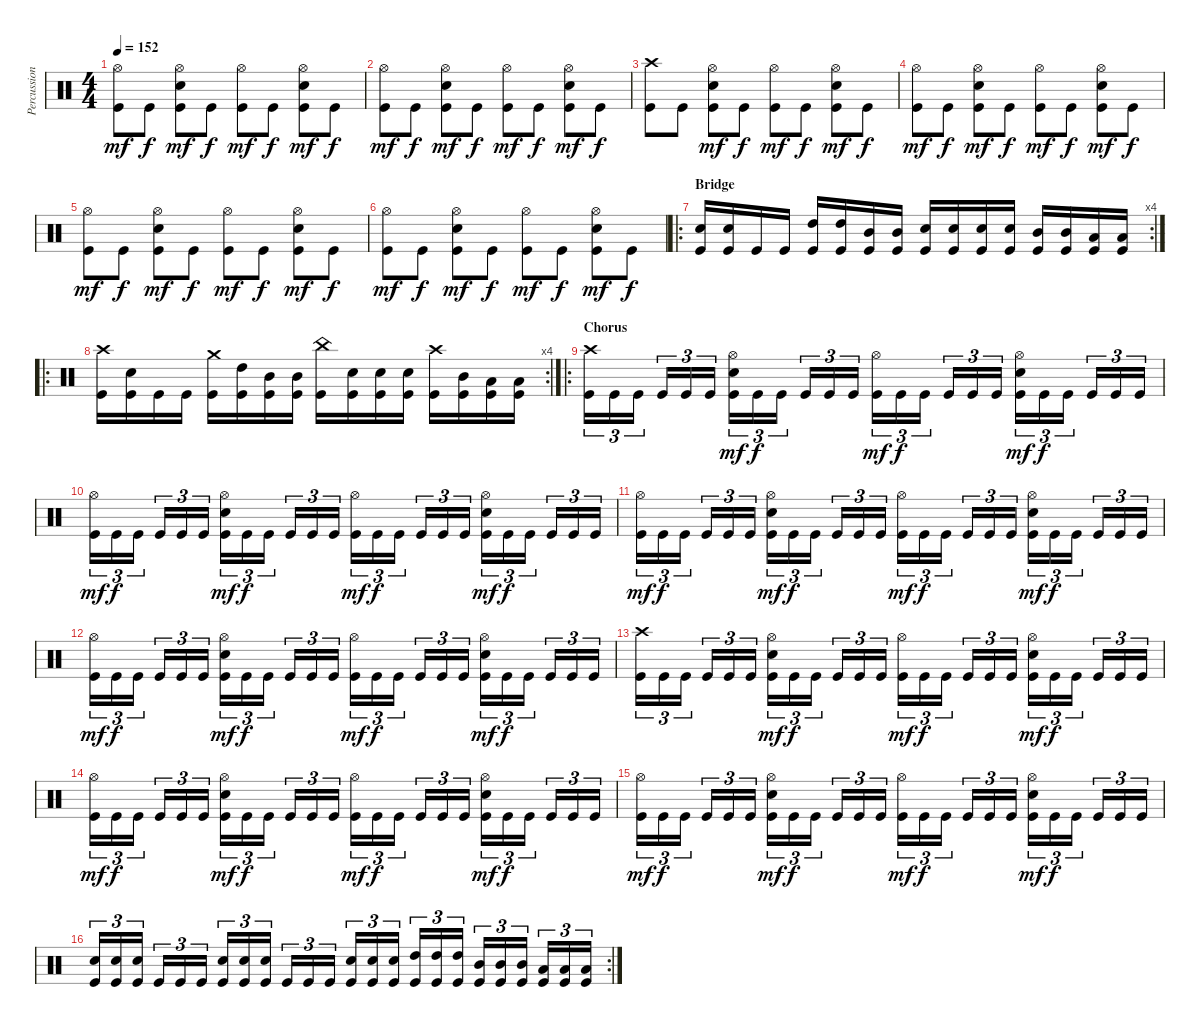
\track ("Percussion" "Percussion") {instrument percussion}
\staff {score}
\articulation defaults
\ts (4 4)
\tempo 152
\clef neutral
\ks c
("Hi-Hat (open)" "Kick (hit)").8{dy mf} "Kick (hit)".8{dy f} ("Hi-Hat (open)" "Snare (hit) 2" "Kick (hit)").8{dy mf} "Kick (hit)".8{dy f} ("Hi-Hat (open)" "Kick (hit)").8{dy mf} "Kick (hit)".8{dy f} ("Hi-Hat (open)" "Snare (hit) 2" "Kick (hit)").8{dy mf} "Kick (hit)".8{dy f} |
("Hi-Hat (open)" "Kick (hit)").8{dy mf} "Kick (hit)".8{dy f} ("Hi-Hat (open)" "Snare (hit) 2" "Kick (hit)").8{dy mf} "Kick (hit)".8{dy f} ("Hi-Hat (open)" "Kick (hit)").8{dy mf} "Kick (hit)".8{dy f} ("Hi-Hat (open)" "Snare (hit) 2" "Kick (hit)").8{dy mf} "Kick (hit)".8{dy f} |
("Crash high (hit)" "Kick (hit)").8 "Kick (hit)".8 ("Hi-Hat (open)" "Snare (hit) 2" "Kick (hit)").8{dy mf} "Kick (hit)".8{dy f} ("Hi-Hat (open)" "Kick (hit)").8{dy mf} "Kick (hit)".8{dy f} ("Hi-Hat (open)" "Snare (hit) 2" "Kick (hit)").8{dy mf} "Kick (hit)".8{dy f} |
("Hi-Hat (open)" "Kick (hit)").8{dy mf} "Kick (hit)".8{dy f} ("Hi-Hat (open)" "Snare (hit) 2" "Kick (hit)").8{dy mf} "Kick (hit)".8{dy f} ("Hi-Hat (open)" "Kick (hit)").8{dy mf} "Kick (hit)".8{dy f} ("Hi-Hat (open)" "Snare (hit) 2" "Kick (hit)").8{dy mf} "Kick (hit)".8{dy f} |
("Hi-Hat (open)" "Kick (hit)").8{dy mf} "Kick (hit)".8{dy f} ("Hi-Hat (open)" "Snare (hit) 2" "Kick (hit)").8{dy mf} "Kick (hit)".8{dy f} ("Hi-Hat (open)" "Kick (hit)").8{dy mf} "Kick (hit)".8{dy f} ("Hi-Hat (open)" "Snare (hit) 2" "Kick (hit)").8{dy mf} "Kick (hit)".8{dy f} |
("Hi-Hat (open)" "Kick (hit)").8{dy mf} "Kick (hit)".8{dy f} ("Hi-Hat (open)" "Snare (hit) 2" "Kick (hit)").8{dy mf} "Kick (hit)".8{dy f} ("Hi-Hat (open)" "Kick (hit)").8{dy mf} "Kick (hit)".8{dy f} ("Hi-Hat (open)" "Snare (hit) 2" "Kick (hit)").8{dy mf} "Kick (hit)".8{dy f} |
\ro
\rc 4
\section ("" "Bridge")
("Snare (hit) 2" "Kick (hit)").16 ("Snare (hit) 2" "Kick (hit)").16 "Kick (hit)".16 "Kick (hit)".16 ("High Tom (hit)" "Kick (hit)").16 ("High Tom (hit)" "Kick (hit)").16 ("Mid Tom (hit)" "Kick (hit)").16 ("Mid Tom (hit)" "Kick (hit)").16 ("Snare (hit) 2" "Kick (hit)").16 ("Snare (hit) 2" "Kick (hit)").16 ("Snare (hit) 2" "Kick (hit)").16 ("Snare (hit) 2" "Kick (hit)").16 ("Mid Tom (hit)" "Kick (hit)").16 ("Mid Tom (hit)" "Kick (hit)").16 ("Low Tom (hit)" "Kick (hit)").16 ("Low Tom (hit)" "Kick (hit)").16 |
\ro
\rc 4
("Crash high (hit)" "Kick (hit)").16 ("Snare (hit) 2" "Kick (hit)").16 "Kick (hit)".16 "Kick (hit)".16 ("Crash medium (hit)" "Kick (hit)").16 ("High Tom (hit)" "Kick (hit)").16 ("Mid Tom (hit)" "Kick (hit)").16 ("Mid Tom (hit)" "Kick (hit)").16 ("China (hit)" "Kick (hit)").16 ("Snare (hit) 2" "Kick (hit)").16 ("Snare (hit) 2" "Kick (hit)").16 ("Snare (hit) 2" "Kick (hit)").16 ("Crash high (hit)" "Kick (hit)").16 ("Mid Tom (hit)" "Kick (hit)").16 ("Low Tom (hit)" "Kick (hit)").16 ("Low Tom (hit)" "Kick (hit)").16 |
\ro
\section ("" "Chorus")
("Crash high (hit)" "Kick (hit)").16{tu (3 2)} "Kick (hit)".16{tu (3 2)} "Kick (hit)".16{tu (3 2)} "Kick (hit)".16{tu (3 2)} "Kick (hit)".16{tu (3 2)} "Kick (hit)".16{tu (3 2)} ("Hi-Hat (open)" "Snare (hit) 2" "Kick (hit)").16{tu (3 2) dy mf} "Kick (hit)".16{tu (3 2) dy f} "Kick (hit)".16{tu (3 2)} "Kick (hit)".16{tu (3 2)} "Kick (hit)".16{tu (3 2)} "Kick (hit)".16{tu (3 2)} ("Hi-Hat (open)" "Kick (hit)").16{tu (3 2) dy mf} "Kick (hit)".16{tu (3 2) dy f} "Kick (hit)".16{tu (3 2)} "Kick (hit)".16{tu (3 2)} "Kick (hit)".16{tu (3 2)} "Kick (hit)".16{tu (3 2)} ("Hi-Hat (open)" "Snare (hit) 2" "Kick (hit)").16{tu (3 2) dy mf} "Kick (hit)".16{tu (3 2) dy f} "Kick (hit)".16{tu (3 2)} "Kick (hit)".16{tu (3 2)} "Kick (hit)".16{tu (3 2)} "Kick (hit)".16{tu (3 2)} |
("Hi-Hat (open)" "Kick (hit)").16{tu (3 2) dy mf} "Kick (hit)".16{tu (3 2) dy f} "Kick (hit)".16{tu (3 2)} "Kick (hit)".16{tu (3 2)} "Kick (hit)".16{tu (3 2)} "Kick (hit)".16{tu (3 2)} ("Hi-Hat (open)" "Snare (hit) 2" "Kick (hit)").16{tu (3 2) dy mf} "Kick (hit)".16{tu (3 2) dy f} "Kick (hit)".16{tu (3 2)} "Kick (hit)".16{tu (3 2)} "Kick (hit)".16{tu (3 2)} "Kick (hit)".16{tu (3 2)} ("Hi-Hat (open)" "Kick (hit)").16{tu (3 2) dy mf} "Kick (hit)".16{tu (3 2) dy f} "Kick (hit)".16{tu (3 2)} "Kick (hit)".16{tu (3 2)} "Kick (hit)".16{tu (3 2)} "Kick (hit)".16{tu (3 2)} ("Hi-Hat (open)" "Snare (hit) 2" "Kick (hit)").16{tu (3 2) dy mf} "Kick (hit)".16{tu (3 2) dy f} "Kick (hit)".16{tu (3 2)} "Kick (hit)".16{tu (3 2)} "Kick (hit)".16{tu (3 2)} "Kick (hit)".16{tu (3 2)} |
("Hi-Hat (open)" "Kick (hit)").16{tu (3 2) dy mf} "Kick (hit)".16{tu (3 2) dy f} "Kick (hit)".16{tu (3 2)} "Kick (hit)".16{tu (3 2)} "Kick (hit)".16{tu (3 2)} "Kick (hit)".16{tu (3 2)} ("Hi-Hat (open)" "Snare (hit) 2" "Kick (hit)").16{tu (3 2) dy mf} "Kick (hit)".16{tu (3 2) dy f} "Kick (hit)".16{tu (3 2)} "Kick (hit)".16{tu (3 2)} "Kick (hit)".16{tu (3 2)} "Kick (hit)".16{tu (3 2)} ("Hi-Hat (open)" "Kick (hit)").16{tu (3 2) dy mf} "Kick (hit)".16{tu (3 2) dy f} "Kick (hit)".16{tu (3 2)} "Kick (hit)".16{tu (3 2)} "Kick (hit)".16{tu (3 2)} "Kick (hit)".16{tu (3 2)} ("Hi-Hat (open)" "Snare (hit) 2" "Kick (hit)").16{tu (3 2) dy mf} "Kick (hit)".16{tu (3 2) dy f} "Kick (hit)".16{tu (3 2)} "Kick (hit)".16{tu (3 2)} "Kick (hit)".16{tu (3 2)} "Kick (hit)".16{tu (3 2)} |
("Hi-Hat (open)" "Kick (hit)").16{tu (3 2) dy mf} "Kick (hit)".16{tu (3 2) dy f} "Kick (hit)".16{tu (3 2)} "Kick (hit)".16{tu (3 2)} "Kick (hit)".16{tu (3 2)} "Kick (hit)".16{tu (3 2)} ("Hi-Hat (open)" "Snare (hit) 2" "Kick (hit)").16{tu (3 2) dy mf} "Kick (hit)".16{tu (3 2) dy f} "Kick (hit)".16{tu (3 2)} "Kick (hit)".16{tu (3 2)} "Kick (hit)".16{tu (3 2)} "Kick (hit)".16{tu (3 2)} ("Hi-Hat (open)" "Kick (hit)").16{tu (3 2) dy mf} "Kick (hit)".16{tu (3 2) dy f} "Kick (hit)".16{tu (3 2)} "Kick (hit)".16{tu (3 2)} "Kick (hit)".16{tu (3 2)} "Kick (hit)".16{tu (3 2)} ("Hi-Hat (open)" "Snare (hit) 2" "Kick (hit)").16{tu (3 2) dy mf} "Kick (hit)".16{tu (3 2) dy f} "Kick (hit)".16{tu (3 2)} "Kick (hit)".16{tu (3 2)} "Kick (hit)".16{tu (3 2)} "Kick (hit)".16{tu (3 2)} |
("Crash high (hit)" "Kick (hit)").16{tu (3 2)} "Kick (hit)".16{tu (3 2)} "Kick (hit)".16{tu (3 2)} "Kick (hit)".16{tu (3 2)} "Kick (hit)".16{tu (3 2)} "Kick (hit)".16{tu (3 2)} ("Hi-Hat (open)" "Snare (hit) 2" "Kick (hit)").16{tu (3 2) dy mf} "Kick (hit)".16{tu (3 2) dy f} "Kick (hit)".16{tu (3 2)} "Kick (hit)".16{tu (3 2)} "Kick (hit)".16{tu (3 2)} "Kick (hit)".16{tu (3 2)} ("Hi-Hat (open)" "Kick (hit)").16{tu (3 2) dy mf} "Kick (hit)".16{tu (3 2) dy f} "Kick (hit)".16{tu (3 2)} "Kick (hit)".16{tu (3 2)} "Kick (hit)".16{tu (3 2)} "Kick (hit)".16{tu (3 2)} ("Hi-Hat (open)" "Snare (hit) 2" "Kick (hit)").16{tu (3 2) dy mf} "Kick (hit)".16{tu (3 2) dy f} "Kick (hit)".16{tu (3 2)} "Kick (hit)".16{tu (3 2)} "Kick (hit)".16{tu (3 2)} "Kick (hit)".16{tu (3 2)} |
("Hi-Hat (open)" "Kick (hit)").16{tu (3 2) dy mf} "Kick (hit)".16{tu (3 2) dy f} "Kick (hit)".16{tu (3 2)} "Kick (hit)".16{tu (3 2)} "Kick (hit)".16{tu (3 2)} "Kick (hit)".16{tu (3 2)} ("Hi-Hat (open)" "Snare (hit) 2" "Kick (hit)").16{tu (3 2) dy mf} "Kick (hit)".16{tu (3 2) dy f} "Kick (hit)".16{tu (3 2)} "Kick (hit)".16{tu (3 2)} "Kick (hit)".16{tu (3 2)} "Kick (hit)".16{tu (3 2)} ("Hi-Hat (open)" "Kick (hit)").16{tu (3 2) dy mf} "Kick (hit)".16{tu (3 2) dy f} "Kick (hit)".16{tu (3 2)} "Kick (hit)".16{tu (3 2)} "Kick (hit)".16{tu (3 2)} "Kick (hit)".16{tu (3 2)} ("Hi-Hat (open)" "Snare (hit) 2" "Kick (hit)").16{tu (3 2) dy mf} "Kick (hit)".16{tu (3 2) dy f} "Kick (hit)".16{tu (3 2)} "Kick (hit)".16{tu (3 2)} "Kick (hit)".16{tu (3 2)} "Kick (hit)".16{tu (3 2)} |
("Hi-Hat (open)" "Kick (hit)").16{tu (3 2) dy mf} "Kick (hit)".16{tu (3 2) dy f} "Kick (hit)".16{tu (3 2)} "Kick (hit)".16{tu (3 2)} "Kick (hit)".16{tu (3 2)} "Kick (hit)".16{tu (3 2)} ("Hi-Hat (open)" "Snare (hit) 2" "Kick (hit)").16{tu (3 2) dy mf} "Kick (hit)".16{tu (3 2) dy f} "Kick (hit)".16{tu (3 2)} "Kick (hit)".16{tu (3 2)} "Kick (hit)".16{tu (3 2)} "Kick (hit)".16{tu (3 2)} ("Hi-Hat (open)" "Kick (hit)").16{tu (3 2) dy mf} "Kick (hit)".16{tu (3 2) dy f} "Kick (hit)".16{tu (3 2)} "Kick (hit)".16{tu (3 2)} "Kick (hit)".16{tu (3 2)} "Kick (hit)".16{tu (3 2)} ("Hi-Hat (open)" "Snare (hit) 2" "Kick (hit)").16{tu (3 2) dy mf} "Kick (hit)".16{tu (3 2) dy f} "Kick (hit)".16{tu (3 2)} "Kick (hit)".16{tu (3 2)} "Kick (hit)".16{tu (3 2)} "Kick (hit)".16{tu (3 2)} |
\rc 2
("Snare (hit) 2" "Kick (hit)").16{tu (3 2)} ("Snare (hit) 2" "Kick (hit)").16{tu (3 2)} ("Snare (hit) 2" "Kick (hit)").16{tu (3 2)} "Kick (hit)".16{tu (3 2)} "Kick (hit)".16{tu (3 2)} "Kick (hit)".16{tu (3 2)} ("Snare (hit) 2" "Kick (hit)").16{tu (3 2)} ("Snare (hit) 2" "Kick (hit)").16{tu (3 2)} ("Snare (hit) 2" "Kick (hit)").16{tu (3 2)} "Kick (hit)".16{tu (3 2)} "Kick (hit)".16{tu (3 2)} "Kick (hit)".16{tu (3 2)} ("Snare (hit) 2" "Kick (hit)").16{tu (3 2)} ("Snare (hit) 2" "Kick (hit)").16{tu (3 2)} ("Snare (hit) 2" "Kick (hit)").16{tu (3 2)} ("High Tom (hit)" "Kick (hit)").16{tu (3 2)} ("High Tom (hit)" "Kick (hit)").16{tu (3 2)} ("High Tom (hit)" "Kick (hit)").16{tu (3 2)} ("Mid Tom (hit)" "Kick (hit)").16{tu (3 2)} ("Mid Tom (hit)" "Kick (hit)").16{tu (3 2)} ("Mid Tom (hit)" "Kick (hit)").16{tu (3 2)} ("Low Tom (hit)" "Kick (hit)").16{tu (3 2)} ("Low Tom (hit)" "Kick (hit)").16{tu (3 2)} ("Low Tom (hit)" "Kick (hit)").16{tu (3 2)}
